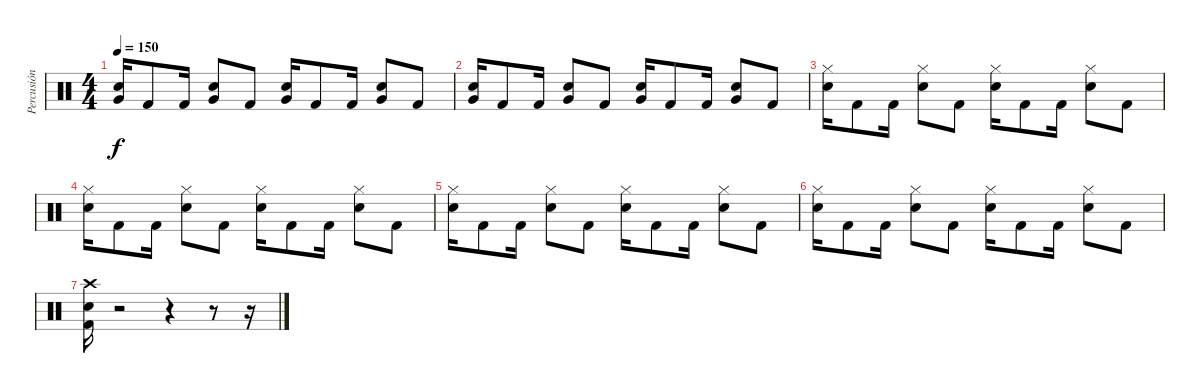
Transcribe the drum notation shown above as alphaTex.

\track ("Percusión" "Percusión") {instrument percussion}
\staff {score}
\articulation defaults
\ts (4 4)
\tempo 150
\clef neutral
\ks c
("Very Low Tom (hit)" "Snare (hit) 2").16{dy f} "Kick (hit) 2".8 "Kick (hit) 2".16 ("Very Low Tom (hit)" "Snare (hit) 2").8 "Kick (hit) 2".8 ("Very Low Tom (hit)" "Snare (hit) 2").16 "Kick (hit) 2".8 "Kick (hit) 2".16 ("Very Low Tom (hit)" "Snare (hit) 2").8 "Kick (hit) 2".8 |
("Very Low Tom (hit)" "Snare (hit) 2").16 "Kick (hit) 2".8 "Kick (hit) 2".16 ("Very Low Tom (hit)" "Snare (hit) 2").8 "Kick (hit) 2".8 ("Very Low Tom (hit)" "Snare (hit) 2").16 "Kick (hit) 2".8 "Kick (hit) 2".16 ("Very Low Tom (hit)" "Snare (hit) 2").8 "Kick (hit) 2".8 |
("Hi-Hat (closed)" "Snare (hit) 2").16 "Kick (hit) 2".8 "Kick (hit) 2".16 ("Hi-Hat (closed)" "Snare (hit) 2").8 "Kick (hit) 2".8 ("Hi-Hat (closed)" "Snare (hit) 2").16 "Kick (hit) 2".8 "Kick (hit) 2".16 ("Hi-Hat (closed)" "Snare (hit) 2").8 "Kick (hit) 2".8 |
("Hi-Hat (closed)" "Snare (hit) 2").16 "Kick (hit) 2".8 "Kick (hit) 2".16 ("Hi-Hat (closed)" "Snare (hit) 2").8 "Kick (hit) 2".8 ("Hi-Hat (closed)" "Snare (hit) 2").16 "Kick (hit) 2".8 "Kick (hit) 2".16 ("Hi-Hat (closed)" "Snare (hit) 2").8 "Kick (hit) 2".8 |
("Hi-Hat (closed)" "Snare (hit) 2").16 "Kick (hit) 2".8 "Kick (hit) 2".16 ("Hi-Hat (closed)" "Snare (hit) 2").8 "Kick (hit) 2".8 ("Hi-Hat (closed)" "Snare (hit) 2").16 "Kick (hit) 2".8 "Kick (hit) 2".16 ("Hi-Hat (closed)" "Snare (hit) 2").8 "Kick (hit) 2".8 |
("Hi-Hat (closed)" "Snare (hit) 2").16 "Kick (hit) 2".8 "Kick (hit) 2".16 ("Hi-Hat (closed)" "Snare (hit) 2").8 "Kick (hit) 2".8 ("Hi-Hat (closed)" "Snare (hit) 2").16 "Kick (hit) 2".8 "Kick (hit) 2".16 ("Hi-Hat (closed)" "Snare (hit) 2").8 "Kick (hit) 2".8 |
("Crash high (hit)" "Snare (hit) 2" "Kick (hit) 2").16 r.2 r.4 r.8 r.16
